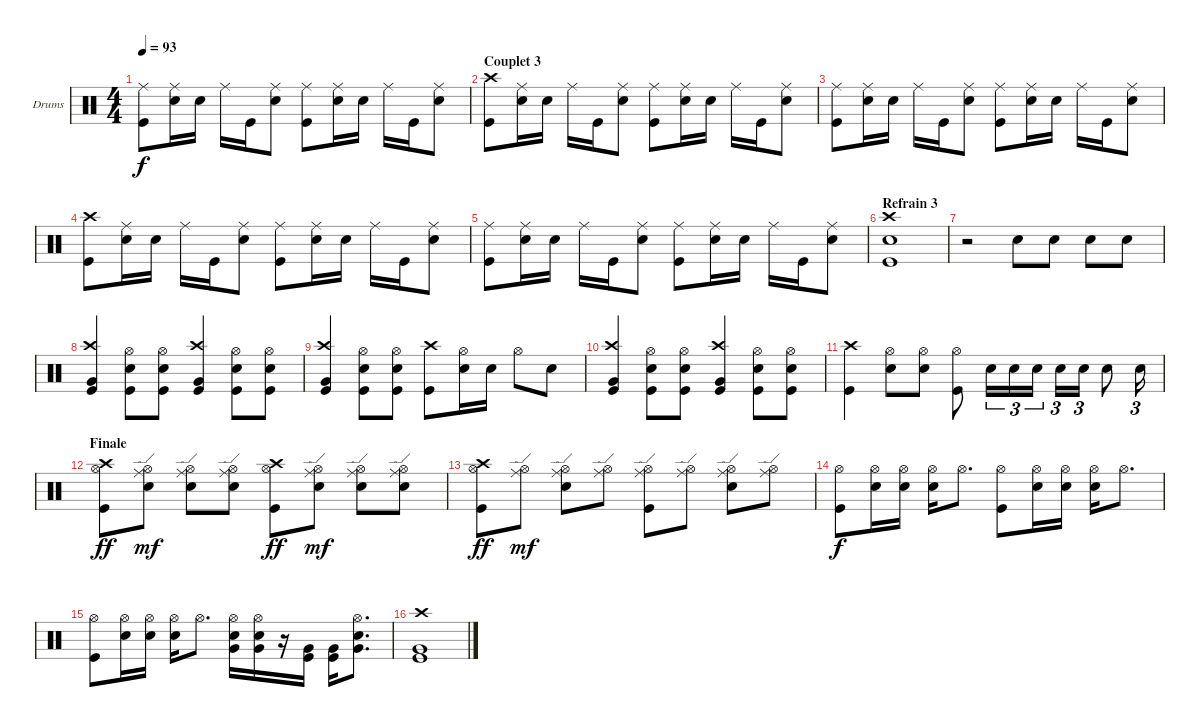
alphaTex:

\bracketExtendMode groupsimilarinstruments
\firstSystemTrackNameOrientation horizontal
\otherSystemsTrackNameOrientation horizontal
\track ("Drumkit" "Drums") {instrument percussion}
\staff {score}
\articulation defaults
\ts (4 4)
\tempo 93
\clef neutral
\ks c
("Ride (middle)" "Kick (hit)").8{dy f} ("Ride (middle)" "Snare (hit) 2").16 "Snare (hit) 2".16 "Ride (middle)".16 "Kick (hit)".16 ("Ride (middle)" "Snare (hit) 2").8 ("Ride (middle)" "Kick (hit)").8 ("Ride (middle)" "Snare (hit) 2").16 "Snare (hit) 2".16 "Ride (middle)".16 "Kick (hit)".16 ("Ride (middle)" "Snare (hit) 2").8 |
\section ("" "Couplet 3")
("Crash high (hit)" "Kick (hit)").8 ("Ride (middle)" "Snare (hit) 2").16 "Snare (hit) 2".16 "Ride (middle)".16 "Kick (hit)".16 ("Ride (middle)" "Snare (hit) 2").8 ("Ride (middle)" "Kick (hit)").8 ("Ride (middle)" "Snare (hit) 2").16 "Snare (hit) 2".16 "Ride (middle)".16 "Kick (hit)".16 ("Ride (middle)" "Snare (hit) 2").8 |
("Ride (middle)" "Kick (hit)").8 ("Ride (middle)" "Snare (hit) 2").16 "Snare (hit) 2".16 "Ride (middle)".16 "Kick (hit)".16 ("Ride (middle)" "Snare (hit) 2").8 ("Ride (middle)" "Kick (hit)").8 ("Ride (middle)" "Snare (hit) 2").16 "Snare (hit) 2".16 "Ride (middle)".16 "Kick (hit)".16 ("Ride (middle)" "Snare (hit) 2").8 |
("Crash high (hit)" "Kick (hit)").8 ("Ride (middle)" "Snare (hit) 2").16 "Snare (hit) 2".16 "Ride (middle)".16 "Kick (hit)".16 ("Ride (middle)" "Snare (hit) 2").8 ("Ride (middle)" "Kick (hit)").8 ("Ride (middle)" "Snare (hit) 2").16 "Snare (hit) 2".16 "Ride (middle)".16 "Kick (hit)".16 ("Ride (middle)" "Snare (hit) 2").8 |
("Ride (middle)" "Kick (hit)").8 ("Ride (middle)" "Snare (hit) 2").16 "Snare (hit) 2".16 "Ride (middle)".16 "Kick (hit)".16 ("Ride (middle)" "Snare (hit) 2").8 ("Ride (middle)" "Kick (hit)").8 ("Ride (middle)" "Snare (hit) 2").16 "Snare (hit) 2".16 "Ride (middle)".16 "Kick (hit)".16 ("Ride (middle)" "Snare (hit) 2").8 |
\section ("" "Refrain 3")
("Crash high (hit)" "Snare (hit) 2" "Kick (hit)").1 |
r.2 "Snare (hit) 2".8 "Snare (hit) 2".8 "Snare (hit) 2".8 "Snare (hit) 2".8 |
("Crash high (hit)" "Very Low Tom (hit)" "Kick (hit)").4 ("Hi-Hat (open)" "Snare (hit) 2" "Kick (hit)").8 ("Hi-Hat (open)" "Snare (hit) 2" "Kick (hit)").8 ("Crash high (hit)" "Very Low Tom (hit)" "Kick (hit)").4 ("Hi-Hat (open)" "Snare (hit) 2" "Kick (hit)").8 ("Hi-Hat (open)" "Snare (hit) 2" "Kick (hit)").8 |
("Crash high (hit)" "Very Low Tom (hit)" "Kick (hit)").4 ("Hi-Hat (open)" "Snare (hit) 2" "Kick (hit)").8 ("Hi-Hat (open)" "Snare (hit) 2" "Kick (hit)").8 ("Crash high (hit)" "Kick (hit)").8 ("Hi-Hat (open)" "Snare (hit) 2").16 "Snare (hit) 2".16 "Hi-Hat (open)".8 "Snare (hit) 2".8 |
("Crash high (hit)" "Very Low Tom (hit)" "Kick (hit)").4 ("Hi-Hat (open)" "Snare (hit) 2" "Kick (hit)").8 ("Hi-Hat (open)" "Snare (hit) 2" "Kick (hit)").8 ("Crash high (hit)" "Very Low Tom (hit)" "Kick (hit)").4 ("Hi-Hat (open)" "Snare (hit) 2" "Kick (hit)").8 ("Hi-Hat (open)" "Snare (hit) 2" "Kick (hit)").8 |
("Crash high (hit)" "Kick (hit)").4 ("Hi-Hat (open)" "Snare (hit) 2").8 ("Hi-Hat (open)" "Snare (hit) 2").8 ("Hi-Hat (open)" "Kick (hit)").8 "Snare (hit) 2".16{tu (3 2)} "Snare (hit) 2".16{tu (3 2)} "Snare (hit) 2".16{tu (3 2)} "Snare (hit) 2".16{tu (3 2)} "Snare (hit) 2".16{tu (3 2)} "Snare (hit) 2".8 "Snare (hit) 2".16{tu (3 2)} |
\section ("" "Finale")
("Crash high (hit)" "Hi-Hat (open)" "Kick (hit)").8{dy ff} ("Ride (edge)" "Hi-Hat (open)" "Snare (hit) 2").8{dy mf} ("Ride (edge)" "Hi-Hat (open)" "Snare (hit) 2").8 ("Ride (edge)" "Hi-Hat (open)" "Snare (hit) 2").8 ("Crash high (hit)" "Hi-Hat (open)" "Kick (hit)").8{dy ff} ("Ride (edge)" "Hi-Hat (open)" "Snare (hit) 2").8{dy mf} ("Ride (edge)" "Hi-Hat (open)" "Snare (hit) 2").8 ("Ride (edge)" "Hi-Hat (open)" "Snare (hit) 2").8 |
("Crash high (hit)" "Hi-Hat (open)" "Kick (hit)").8{dy ff} ("Ride (edge)" "Hi-Hat (open)").8{dy mf} ("Ride (edge)" "Hi-Hat (open)" "Snare (hit) 2").8 ("Ride (edge)" "Hi-Hat (open)").8 ("Ride (edge)" "Hi-Hat (open)" "Kick (hit)").8 ("Ride (edge)" "Hi-Hat (open)").8 ("Ride (edge)" "Hi-Hat (open)" "Snare (hit) 2").8 ("Ride (edge)" "Hi-Hat (open)").8 |
("Hi-Hat (open)" "Kick (hit)").8{dy f} ("Hi-Hat (open)" "Snare (hit) 2").16 ("Hi-Hat (open)" "Snare (hit) 2").16 ("Hi-Hat (open)" "Snare (hit) 2").16 "Hi-Hat (open)".8{d} ("Hi-Hat (open)" "Kick (hit)").8 ("Hi-Hat (open)" "Snare (hit) 2").16 ("Hi-Hat (open)" "Snare (hit) 2").16 ("Hi-Hat (open)" "Snare (hit) 2").16 "Hi-Hat (open)".8{d} |
("Hi-Hat (open)" "Kick (hit)").8 ("Hi-Hat (open)" "Snare (hit) 2").16 ("Hi-Hat (open)" "Snare (hit) 2").16 ("Hi-Hat (open)" "Snare (hit) 2").16 "Hi-Hat (open)".8{d} ("Hi-Hat (open)" "Snare (hit) 2" "Very Low Tom (hit)").16 ("Hi-Hat (open)" "Snare (hit) 2" "Very Low Tom (hit)").16 r.16 ("Very Low Tom (hit)" "Kick (hit)").16 ("Very Low Tom (hit)" "Kick (hit)").16 ("Hi-Hat (open)" "Snare (hit) 2" "Very Low Tom (hit)").8{d} |
("Crash high (hit)" "Kick (hit)" "Very Low Tom (hit)").1
